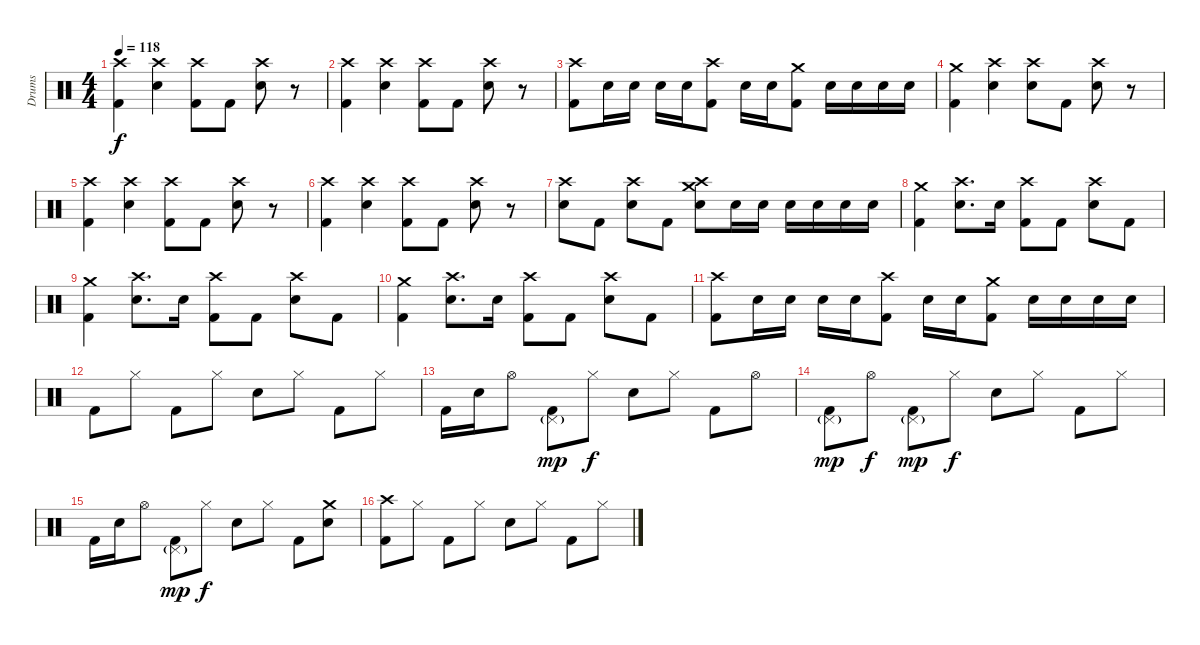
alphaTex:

\track ("Drums" "Drums") {instrument percussion bank 5}
\staff {score}
\articulation defaults
\ts (4 4)
\tempo 118
\clef neutral
\ks c
("Crash high (hit)" "Kick (hit) 2").4{dy f} ("Crash high (hit)" "Snare (hit) 2").4 ("Crash high (hit)" "Kick (hit) 2").8 "Kick (hit) 2".8 ("Crash high (hit)" "Snare (hit) 2").8 r.8 |
("Crash high (hit)" "Kick (hit) 2").4 ("Crash high (hit)" "Snare (hit) 2").4 ("Crash high (hit)" "Kick (hit) 2").8 "Kick (hit) 2".8 ("Crash high (hit)" "Snare (hit) 2").8 r.8 |
("Crash high (hit)" "Kick (hit) 2").8 "Snare (hit) 2".16 "Snare (hit) 2".16 "Snare (hit) 2".16 "Snare (hit) 2".16 ("Crash high (hit)" "Kick (hit) 2").8 "Snare (hit) 2".16 "Snare (hit) 2".16 ("Crash medium (hit)" "Kick (hit) 2").8 "Snare (hit) 2".16 "Snare (hit) 2".16 "Snare (hit) 2".16 "Snare (hit) 2".16 |
("Crash medium (hit)" "Kick (hit) 2").4 ("Crash high (hit)" "Snare (hit) 2").4 ("Crash high (hit)" "Snare (hit) 2").8 "Kick (hit) 2".8 ("Crash high (hit)" "Snare (hit) 2").8 r.8 |
("Crash high (hit)" "Kick (hit) 2").4 ("Crash high (hit)" "Snare (hit) 2").4 ("Crash high (hit)" "Kick (hit) 2").8 "Kick (hit) 2".8 ("Crash high (hit)" "Snare (hit) 2").8 r.8 |
("Crash high (hit)" "Kick (hit) 2").4 ("Crash high (hit)" "Snare (hit) 2").4 ("Crash high (hit)" "Kick (hit) 2").8 "Kick (hit) 2".8 ("Crash high (hit)" "Snare (hit) 2").8 r.8 |
("Crash high (hit)" "Snare (hit) 2").8 "Kick (hit) 2".8 ("Crash high (hit)" "Snare (hit) 2").8 "Kick (hit) 2".8 ("Crash high (hit)" "Crash medium (hit)" "Snare (hit) 2").8 "Snare (hit) 2".16 "Snare (hit) 2".16 "Snare (hit) 2".16 "Snare (hit) 2".16 "Snare (hit) 2".16 "Snare (hit) 2".16 |
("Crash medium (hit)" "Kick (hit) 2").4 ("Crash high (hit)" "Snare (hit) 2").8{d} "Snare (hit) 2".16 ("Crash high (hit)" "Kick (hit) 2").8 "Kick (hit) 2".8 ("Crash high (hit)" "Snare (hit) 2").8 "Kick (hit) 2".8 |
("Crash medium (hit)" "Kick (hit) 2").4 ("Crash high (hit)" "Snare (hit) 2").8{d} "Snare (hit) 2".16 ("Crash high (hit)" "Kick (hit) 2").8 "Kick (hit) 2".8 ("Crash high (hit)" "Snare (hit) 2").8 "Kick (hit) 2".8 |
("Crash medium (hit)" "Kick (hit) 2").4 ("Crash high (hit)" "Snare (hit) 2").8{d} "Snare (hit) 2".16 ("Crash high (hit)" "Kick (hit) 2").8 "Kick (hit) 2".8 ("Crash high (hit)" "Snare (hit) 2").8 "Kick (hit) 2".8 |
("Crash high (hit)" "Kick (hit) 2").8 "Snare (hit) 2".16 "Snare (hit) 2".16 "Snare (hit) 2".16 "Snare (hit) 2".16 ("Crash high (hit)" "Kick (hit) 2").8 "Snare (hit) 2".16 "Snare (hit) 2".16 ("Crash medium (hit)" "Kick (hit) 2").8 "Snare (hit) 2".16 "Snare (hit) 2".16 "Snare (hit) 2".16 "Snare (hit) 2".16 |
"Kick (hit) 2".8 "Hi-Hat (closed)".8 "Kick (hit) 2".8 "Hi-Hat (closed)".8 "Snare (hit) 2".8 "Hi-Hat (closed)".8 "Kick (hit) 2".8 "Hi-Hat (closed)".8 |
"Kick (hit) 2".16 "Snare (hit) 2".16 "Hi-Hat (open)".8 ("Pedal Hi-Hat (hit)"{g} "Kick (hit) 2").8{dy mp} "Hi-Hat (closed)".8{dy f} "Snare (hit) 2".8 "Hi-Hat (closed)".8 "Kick (hit) 2".8 "Hi-Hat (open)".8 |
("Pedal Hi-Hat (hit)"{g} "Kick (hit) 2").8{dy mp} "Hi-Hat (open)".8{dy f} ("Pedal Hi-Hat (hit)"{g} "Kick (hit) 2").8{dy mp} "Hi-Hat (closed)".8{dy f} "Snare (hit) 2".8 "Hi-Hat (closed)".8 "Kick (hit) 2".8 "Hi-Hat (closed)".8 |
"Kick (hit) 2".16 "Snare (hit) 2".16 "Hi-Hat (open)".8 ("Pedal Hi-Hat (hit)"{g} "Kick (hit) 2").8{dy mp} "Hi-Hat (closed)".8{dy f} "Snare (hit) 2".8 "Hi-Hat (closed)".8 "Kick (hit) 2".8 ("Crash medium (hit)" "Snare (hit) 2").8 |
("Crash high (hit)" "Kick (hit) 2").8 "Hi-Hat (closed)".8 "Kick (hit) 2".8 "Hi-Hat (closed)".8 "Snare (hit) 2".8 "Hi-Hat (closed)".8 "Kick (hit) 2".8 "Hi-Hat (closed)".8
